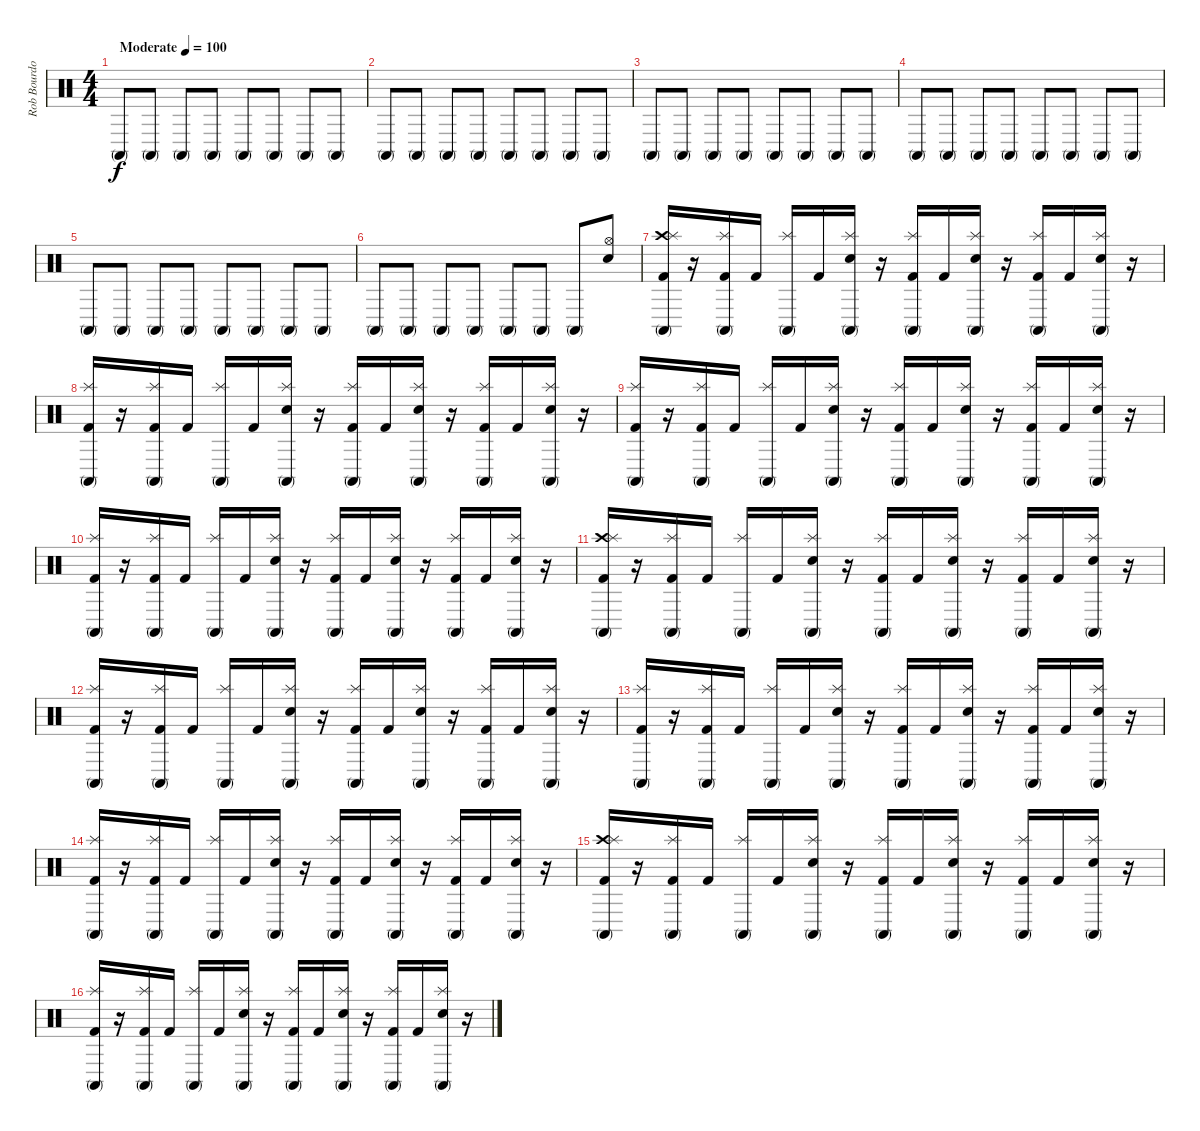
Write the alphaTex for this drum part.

\track ("Rob Bourdon" "Rob Bourdo") {instrument percussion}
\staff {score}
\articulation defaults
\ts (4 4)
\tempo (100 "Moderate")
\clef neutral
\ks c "Conga high (mute)".8{dy f} "Conga high (mute)".8 "Conga high (mute)".8 "Conga high (mute)".8 "Conga high (mute)".8 "Conga high (mute)".8 "Conga high (mute)".8 "Conga high (mute)".8
|
"Conga high (mute)".8 "Conga high (mute)".8 "Conga high (mute)".8 "Conga high (mute)".8 "Conga high (mute)".8 "Conga high (mute)".8 "Conga high (mute)".8 "Conga high (mute)".8 |
"Conga high (mute)".8 "Conga high (mute)".8 "Conga high (mute)".8 "Conga high (mute)".8 "Conga high (mute)".8 "Conga high (mute)".8 "Conga high (mute)".8 "Conga high (mute)".8 |
"Conga high (mute)".8 "Conga high (mute)".8 "Conga high (mute)".8 "Conga high (mute)".8 "Conga high (mute)".8 "Conga high (mute)".8 "Conga high (mute)".8 "Conga high (mute)".8 |
"Conga high (mute)".8 "Conga high (mute)".8 "Conga high (mute)".8 "Conga high (mute)".8 "Conga high (mute)".8 "Conga high (mute)".8 "Conga high (mute)".8 "Conga high (mute)".8 |
"Conga high (mute)".8 "Conga high (mute)".8 "Conga high (mute)".8 "Conga high (mute)".8 "Conga high (mute)".8 "Conga high (mute)".8 "Conga high (mute)".8 ("Hi-Hat (open)" "Electric Snare (hit)").8 |
("Conga high (mute)" "Crash high (hit)" "Splash (hit)" "Kick (hit) 2").16 r.16 ("Conga high (mute)" "Splash (hit)" "Kick (hit) 2").16 "Kick (hit) 2".16 ("Conga high (mute)" "Splash (hit)").16 "Kick (hit) 2".16 ("Conga high (mute)" "Splash (hit)" "Electric Snare (hit)").16 r.16 ("Conga high (mute)" "Splash (hit)" "Kick (hit) 2").16 "Kick (hit) 2".16 ("Conga high (mute)" "Splash (hit)" "Electric Snare (hit)").16 r.16 ("Conga high (mute)" "Splash (hit)" "Kick (hit) 2").16 "Kick (hit) 2".16 ("Conga high (mute)" "Splash (hit)" "Electric Snare (hit)").16 r.16 |
("Conga high (mute)" "Splash (hit)" "Kick (hit) 2").16 r.16 ("Conga high (mute)" "Splash (hit)" "Kick (hit) 2").16 "Kick (hit) 2".16 ("Conga high (mute)" "Splash (hit)").16 "Kick (hit) 2".16 ("Conga high (mute)" "Splash (hit)" "Electric Snare (hit)").16 r.16 ("Conga high (mute)" "Splash (hit)" "Kick (hit) 2").16 "Kick (hit) 2".16 ("Conga high (mute)" "Splash (hit)" "Electric Snare (hit)").16 r.16 ("Conga high (mute)" "Splash (hit)" "Kick (hit) 2").16 "Kick (hit) 2".16 ("Conga high (mute)" "Splash (hit)" "Electric Snare (hit)").16 r.16 |
("Conga high (mute)" "Splash (hit)" "Kick (hit) 2").16 r.16 ("Conga high (mute)" "Splash (hit)" "Kick (hit) 2").16 "Kick (hit) 2".16 ("Conga high (mute)" "Splash (hit)").16 "Kick (hit) 2".16 ("Conga high (mute)" "Splash (hit)" "Electric Snare (hit)").16 r.16 ("Conga high (mute)" "Splash (hit)" "Kick (hit) 2").16 "Kick (hit) 2".16 ("Conga high (mute)" "Splash (hit)" "Electric Snare (hit)").16 r.16 ("Conga high (mute)" "Splash (hit)" "Kick (hit) 2").16 "Kick (hit) 2".16 ("Conga high (mute)" "Splash (hit)" "Electric Snare (hit)").16 r.16 |
("Conga high (mute)" "Splash (hit)" "Kick (hit) 2").16 r.16 ("Conga high (mute)" "Splash (hit)" "Kick (hit) 2").16 "Kick (hit) 2".16 ("Conga high (mute)" "Splash (hit)").16 "Kick (hit) 2".16 ("Conga high (mute)" "Splash (hit)" "Electric Snare (hit)").16 r.16 ("Conga high (mute)" "Splash (hit)" "Kick (hit) 2").16 "Kick (hit) 2".16 ("Conga high (mute)" "Splash (hit)" "Electric Snare (hit)").16 r.16 ("Conga high (mute)" "Splash (hit)" "Kick (hit) 2").16 "Kick (hit) 2".16 ("Conga high (mute)" "Splash (hit)" "Electric Snare (hit)").16 r.16 |
("Conga high (mute)" "Crash high (hit)" "Splash (hit)" "Kick (hit) 2").16 r.16 ("Conga high (mute)" "Splash (hit)" "Kick (hit) 2").16 "Kick (hit) 2".16 ("Conga high (mute)" "Splash (hit)").16 "Kick (hit) 2".16 ("Conga high (mute)" "Splash (hit)" "Electric Snare (hit)").16 r.16 ("Conga high (mute)" "Splash (hit)" "Kick (hit) 2").16 "Kick (hit) 2".16 ("Conga high (mute)" "Splash (hit)" "Electric Snare (hit)").16 r.16 ("Conga high (mute)" "Splash (hit)" "Kick (hit) 2").16 "Kick (hit) 2".16 ("Conga high (mute)" "Splash (hit)" "Electric Snare (hit)").16 r.16 |
("Conga high (mute)" "Splash (hit)" "Kick (hit) 2").16 r.16 ("Conga high (mute)" "Splash (hit)" "Kick (hit) 2").16 "Kick (hit) 2".16 ("Conga high (mute)" "Splash (hit)").16 "Kick (hit) 2".16 ("Conga high (mute)" "Splash (hit)" "Electric Snare (hit)").16 r.16 ("Conga high (mute)" "Splash (hit)" "Kick (hit) 2").16 "Kick (hit) 2".16 ("Conga high (mute)" "Splash (hit)" "Electric Snare (hit)").16 r.16 ("Conga high (mute)" "Splash (hit)" "Kick (hit) 2").16 "Kick (hit) 2".16 ("Conga high (mute)" "Splash (hit)" "Electric Snare (hit)").16 r.16 |
("Conga high (mute)" "Splash (hit)" "Kick (hit) 2").16 r.16 ("Conga high (mute)" "Splash (hit)" "Kick (hit) 2").16 "Kick (hit) 2".16 ("Conga high (mute)" "Splash (hit)").16 "Kick (hit) 2".16 ("Conga high (mute)" "Splash (hit)" "Electric Snare (hit)").16 r.16 ("Conga high (mute)" "Splash (hit)" "Kick (hit) 2").16 "Kick (hit) 2".16 ("Conga high (mute)" "Splash (hit)" "Electric Snare (hit)").16 r.16 ("Conga high (mute)" "Splash (hit)" "Kick (hit) 2").16 "Kick (hit) 2".16 ("Conga high (mute)" "Splash (hit)" "Electric Snare (hit)").16 r.16 |
("Conga high (mute)" "Splash (hit)" "Kick (hit) 2").16 r.16 ("Conga high (mute)" "Splash (hit)" "Kick (hit) 2").16 "Kick (hit) 2".16 ("Conga high (mute)" "Splash (hit)").16 "Kick (hit) 2".16 ("Conga high (mute)" "Splash (hit)" "Electric Snare (hit)").16 r.16 ("Conga high (mute)" "Splash (hit)" "Kick (hit) 2").16 "Kick (hit) 2".16 ("Conga high (mute)" "Splash (hit)" "Electric Snare (hit)").16 r.16 ("Conga high (mute)" "Splash (hit)" "Kick (hit) 2").16 "Kick (hit) 2".16 ("Conga high (mute)" "Splash (hit)" "Electric Snare (hit)").16 r.16 |
("Conga high (mute)" "Crash high (hit)" "Splash (hit)" "Kick (hit) 2").16 r.16 ("Conga high (mute)" "Splash (hit)" "Kick (hit) 2").16 "Kick (hit) 2".16 ("Conga high (mute)" "Splash (hit)").16 "Kick (hit) 2".16 ("Conga high (mute)" "Splash (hit)" "Electric Snare (hit)").16 r.16 ("Conga high (mute)" "Splash (hit)" "Kick (hit) 2").16 "Kick (hit) 2".16 ("Conga high (mute)" "Splash (hit)" "Electric Snare (hit)").16 r.16 ("Conga high (mute)" "Splash (hit)" "Kick (hit) 2").16 "Kick (hit) 2".16 ("Conga high (mute)" "Splash (hit)" "Electric Snare (hit)").16 r.16 |
("Conga high (mute)" "Splash (hit)" "Kick (hit) 2").16 r.16 ("Conga high (mute)" "Splash (hit)" "Kick (hit) 2").16 "Kick (hit) 2".16 ("Conga high (mute)" "Splash (hit)").16 "Kick (hit) 2".16 ("Conga high (mute)" "Splash (hit)" "Electric Snare (hit)").16 r.16 ("Conga high (mute)" "Splash (hit)" "Kick (hit) 2").16 "Kick (hit) 2".16 ("Conga high (mute)" "Splash (hit)" "Electric Snare (hit)").16 r.16 ("Conga high (mute)" "Splash (hit)" "Kick (hit) 2").16 "Kick (hit) 2".16 ("Conga high (mute)" "Splash (hit)" "Electric Snare (hit)").16 r.16
